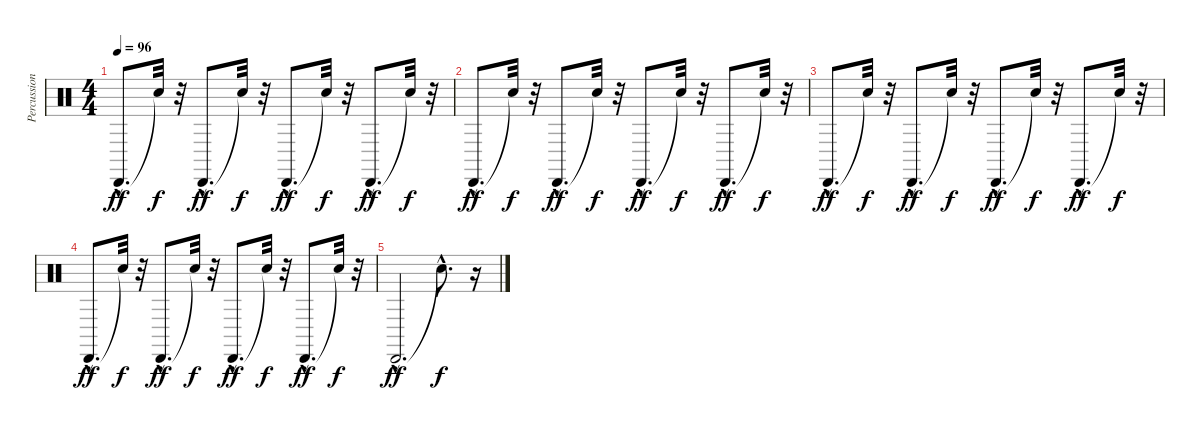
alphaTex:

\track ("Percussion 2" "Percussion") {instrument percussion}
\staff {score}
\articulation defaults
\ts (4 4)
\tempo 96
\clef neutral
\ks c "Cabasa (hit)"{hac}.8{d dy ff} "Snare (hit)"{t}.32{dy f}
r.32 "Cabasa (hit)"{hac}.8{d dy ff} "Snare (hit)"{t}.32{dy f} r.32 "Cabasa (hit)"{hac}.8{d dy ff} "Snare (hit)"{t}.32{dy f} r.32 "Cabasa (hit)"{hac}.8{d dy ff} "Snare (hit)"{t}.32{dy f} r.32 |
"Cabasa (hit)"{hac}.8{d dy ff} "Snare (hit)"{t}.32{dy f} r.32 "Cabasa (hit)"{hac}.8{d dy ff} "Snare (hit)"{t}.32{dy f} r.32 "Cabasa (hit)"{hac}.8{d dy ff} "Snare (hit)"{t}.32{dy f} r.32 "Cabasa (hit)"{hac}.8{d dy ff} "Snare (hit)"{t}.32{dy f} r.32 |
"Cabasa (hit)"{hac}.8{d dy ff} "Snare (hit)"{t}.32{dy f} r.32 "Cabasa (hit)"{hac}.8{d dy ff} "Snare (hit)"{t}.32{dy f} r.32 "Cabasa (hit)"{hac}.8{d dy ff} "Snare (hit)"{t}.32{dy f} r.32 "Cabasa (hit)"{hac}.8{d dy ff} "Snare (hit)"{t}.32{dy f} r.32 |
"Cabasa (hit)"{hac}.8{d dy ff} "Snare (hit)"{t}.32{dy f} r.32 "Cabasa (hit)"{hac}.8{d dy ff} "Snare (hit)"{t}.32{dy f} r.32 "Cabasa (hit)"{hac}.8{d dy ff} "Snare (hit)"{t}.32{dy f} r.32 "Cabasa (hit)"{hac}.8{d dy ff} "Snare (hit)"{t}.32{dy f} r.32 |
"Cabasa (hit)"{hac}.2{d dy ff} "Snare (hit)"{hac t}.8{d dy f} r.16
